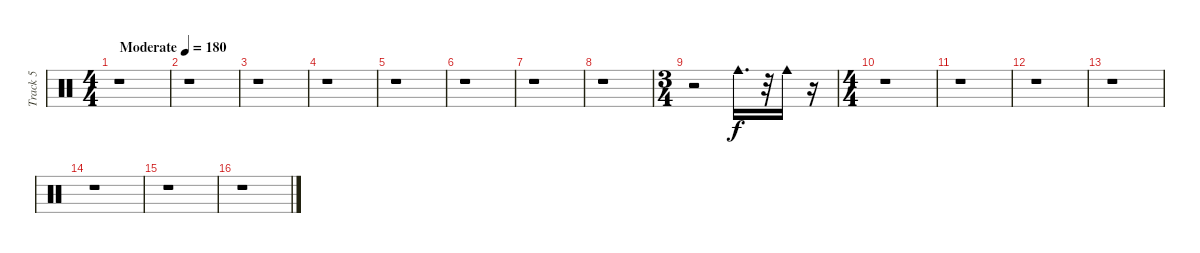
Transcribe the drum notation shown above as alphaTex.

\track ("Track 5" "Track 5") {instrument percussion}
\staff {score}
\articulation defaults
\ts (4 4)
\tempo (180 "Moderate")
\clef neutral
\ks c
r.1{dy f} |
r.1 |
r.1 |
r.1 |
r.1 |
r.1 |
r.1 |
r.1 |
\ts (3 4)
r.2 "Cowbell medium (hit)".16{d} r.32 "Cowbell medium (hit)".16 r.16 |
\ts (4 4)
r.1 |
r.1 |
r.1 |
r.1 |
r.1 |
r.1 |
r.1
